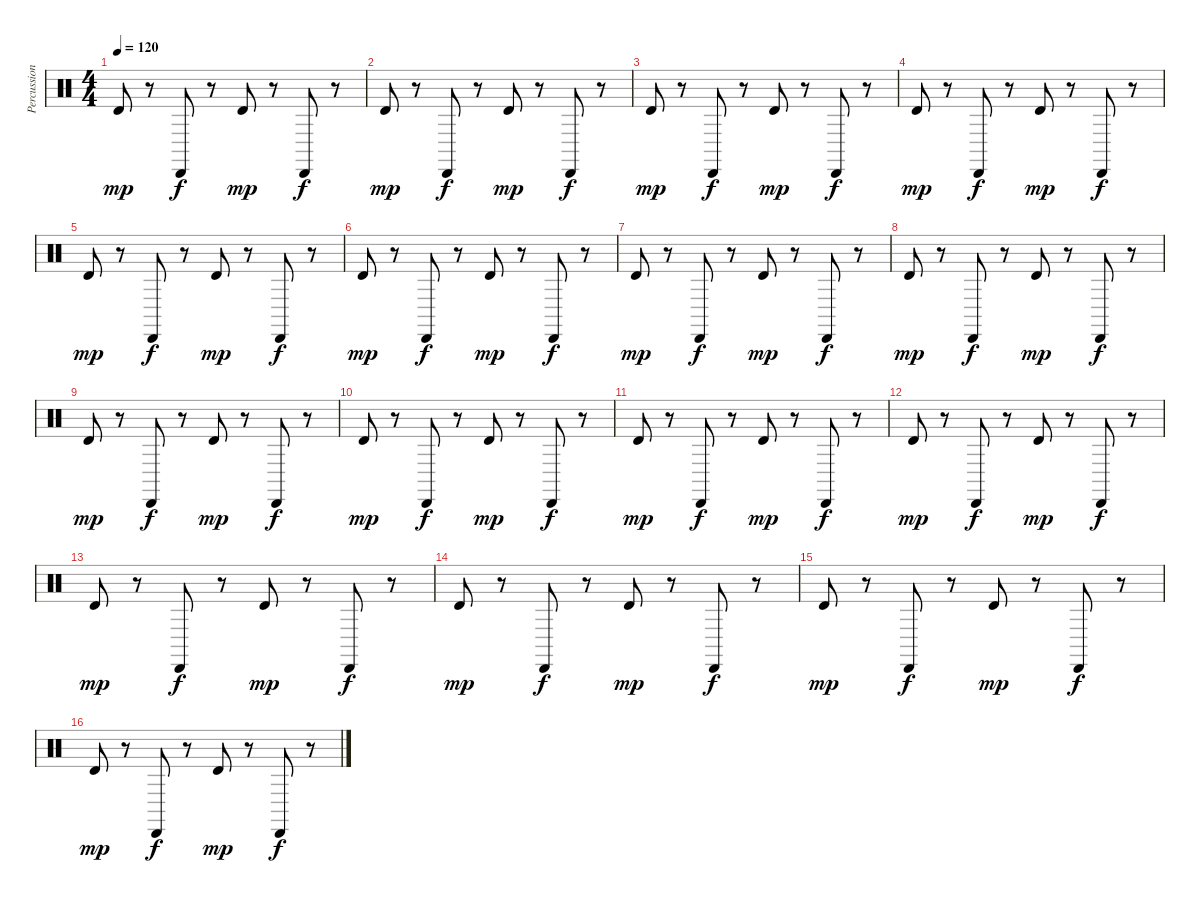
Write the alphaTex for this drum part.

\track ("Percussions" "Percussion") {instrument percussion}
\staff {score}
\articulation defaults
\ts (4 4)
\tempo 120
\clef neutral
\ks c "Timbale high (hit)".8{dy mp}
r.8 "Cabasa (hit)".8{dy f} r.8 "Timbale high (hit)".8{dy mp} r.8 "Cabasa (hit)".8{dy f} r.8 |
"Timbale high (hit)".8{dy mp} r.8 "Cabasa (hit)".8{dy f} r.8 "Timbale high (hit)".8{dy mp} r.8 "Cabasa (hit)".8{dy f} r.8 |
"Timbale high (hit)".8{dy mp} r.8 "Cabasa (hit)".8{dy f} r.8 "Timbale high (hit)".8{dy mp} r.8 "Cabasa (hit)".8{dy f} r.8 |
"Timbale high (hit)".8{dy mp} r.8 "Cabasa (hit)".8{dy f} r.8 "Timbale high (hit)".8{dy mp} r.8 "Cabasa (hit)".8{dy f} r.8 |
"Timbale high (hit)".8{dy mp} r.8 "Cabasa (hit)".8{dy f} r.8 "Timbale high (hit)".8{dy mp} r.8 "Cabasa (hit)".8{dy f} r.8 |
"Timbale high (hit)".8{dy mp} r.8 "Cabasa (hit)".8{dy f} r.8 "Timbale high (hit)".8{dy mp} r.8 "Cabasa (hit)".8{dy f} r.8 |
"Timbale high (hit)".8{dy mp} r.8 "Cabasa (hit)".8{dy f} r.8 "Timbale high (hit)".8{dy mp} r.8 "Cabasa (hit)".8{dy f} r.8 |
"Timbale high (hit)".8{dy mp} r.8 "Cabasa (hit)".8{dy f} r.8 "Timbale high (hit)".8{dy mp} r.8 "Cabasa (hit)".8{dy f} r.8 |
"Timbale high (hit)".8{dy mp} r.8 "Cabasa (hit)".8{dy f} r.8 "Timbale high (hit)".8{dy mp} r.8 "Cabasa (hit)".8{dy f} r.8 |
"Timbale high (hit)".8{dy mp} r.8 "Cabasa (hit)".8{dy f} r.8 "Timbale high (hit)".8{dy mp} r.8 "Cabasa (hit)".8{dy f} r.8 |
"Timbale high (hit)".8{dy mp} r.8 "Cabasa (hit)".8{dy f} r.8 "Timbale high (hit)".8{dy mp} r.8 "Cabasa (hit)".8{dy f} r.8 |
"Timbale high (hit)".8{dy mp} r.8 "Cabasa (hit)".8{dy f} r.8 "Timbale high (hit)".8{dy mp} r.8 "Cabasa (hit)".8{dy f} r.8 |
"Timbale high (hit)".8{dy mp} r.8 "Cabasa (hit)".8{dy f} r.8 "Timbale high (hit)".8{dy mp} r.8 "Cabasa (hit)".8{dy f} r.8 |
"Timbale high (hit)".8{dy mp} r.8 "Cabasa (hit)".8{dy f} r.8 "Timbale high (hit)".8{dy mp} r.8 "Cabasa (hit)".8{dy f} r.8 |
"Timbale high (hit)".8{dy mp} r.8 "Cabasa (hit)".8{dy f} r.8 "Timbale high (hit)".8{dy mp} r.8 "Cabasa (hit)".8{dy f} r.8 |
"Timbale high (hit)".8{dy mp} r.8 "Cabasa (hit)".8{dy f} r.8 "Timbale high (hit)".8{dy mp} r.8 "Cabasa (hit)".8{dy f} r.8
